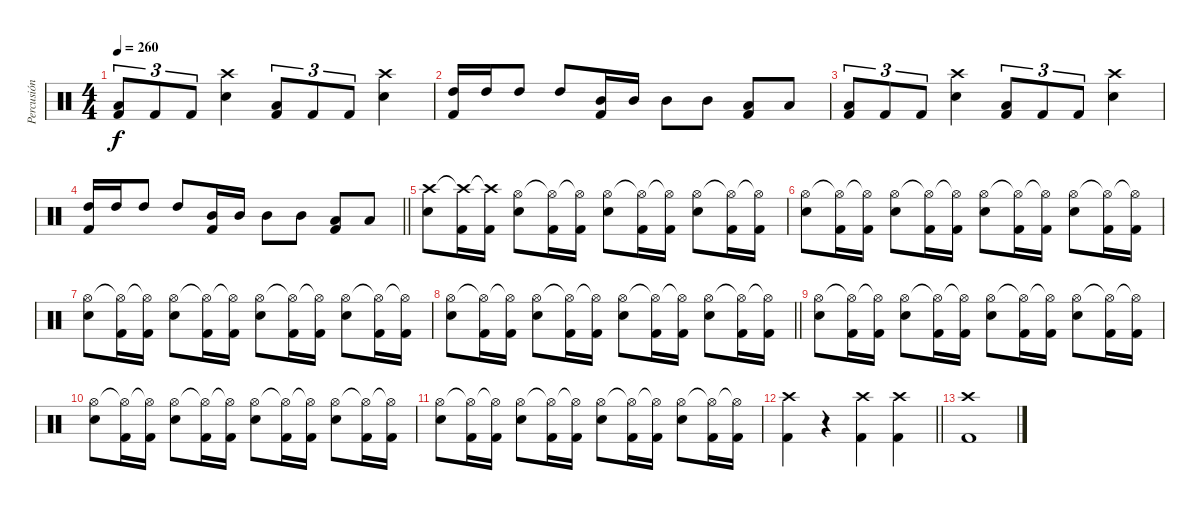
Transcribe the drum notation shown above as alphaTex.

\track ("Percusión" "Percusión") {instrument percussion}
\staff {score}
\articulation defaults
\ts (4 4)
\tempo 260
\clef neutral
\ks c
("Low Tom (hit)" "Kick (hit) 2").8{tu (3 2) dy f} "Kick (hit) 2".8{tu (3 2)} "Kick (hit) 2".8{tu (3 2)} ("Snare (hit) 2" "Crash high (hit)").4 ("Low Tom (hit)" "Kick (hit) 2").8{tu (3 2)} "Kick (hit) 2".8{tu (3 2)} "Kick (hit) 2".8{tu (3 2)} ("Snare (hit) 2" "Crash high (hit)").4 |
("Kick (hit) 2" "High Tom (hit)").16 "High Tom (hit)".16 "High Tom (hit)".8 "High Tom (hit)".8 ("Kick (hit) 2" "Mid Tom (hit)").16 "Mid Tom (hit)".16 "Mid Tom (hit)".8 "Mid Tom (hit)".8 ("Kick (hit) 2" "Low Tom (hit)").8 "Low Tom (hit)".8 |
("Low Tom (hit)" "Kick (hit) 2").8{tu (3 2)} "Kick (hit) 2".8{tu (3 2)} "Kick (hit) 2".8{tu (3 2)} ("Snare (hit) 2" "Crash high (hit)").4 ("Low Tom (hit)" "Kick (hit) 2").8{tu (3 2)} "Kick (hit) 2".8{tu (3 2)} "Kick (hit) 2".8{tu (3 2)} ("Snare (hit) 2" "Crash high (hit)").4 |
\barLineRight lightlight
("Kick (hit) 2" "High Tom (hit)").16 "High Tom (hit)".16 "High Tom (hit)".8 "High Tom (hit)".8 ("Kick (hit) 2" "Mid Tom (hit)").16 "Mid Tom (hit)".16 "Mid Tom (hit)".8 "Mid Tom (hit)".8 ("Kick (hit) 2" "Low Tom (hit)").8 "Low Tom (hit)".8 |
("Snare (hit) 2" "Crash high (hit)").8 ("Kick (hit) 2" "Crash high (hit)"{t}).16 ("Kick (hit) 2" "Crash high (hit)"{t}).16 ("Snare (hit) 2" "Hi-Hat (open)").8 ("Kick (hit) 2" "Hi-Hat (open)"{t}).16 ("Kick (hit) 2" "Hi-Hat (open)"{t}).16 ("Snare (hit) 2" "Hi-Hat (open)").8 ("Kick (hit) 2" "Hi-Hat (open)"{t}).16 ("Kick (hit) 2" "Hi-Hat (open)"{t}).16 ("Snare (hit) 2" "Hi-Hat (open)").8 ("Kick (hit) 2" "Hi-Hat (open)"{t}).16 ("Kick (hit) 2" "Hi-Hat (open)"{t}).16 |
("Snare (hit) 2" "Hi-Hat (open)").8 ("Kick (hit) 2" "Hi-Hat (open)"{t}).16 ("Kick (hit) 2" "Hi-Hat (open)"{t}).16 ("Snare (hit) 2" "Hi-Hat (open)").8 ("Kick (hit) 2" "Hi-Hat (open)"{t}).16 ("Kick (hit) 2" "Hi-Hat (open)"{t}).16 ("Snare (hit) 2" "Hi-Hat (open)").8 ("Kick (hit) 2" "Hi-Hat (open)"{t}).16 ("Kick (hit) 2" "Hi-Hat (open)"{t}).16 ("Snare (hit) 2" "Hi-Hat (open)").8 ("Kick (hit) 2" "Hi-Hat (open)"{t}).16 ("Kick (hit) 2" "Hi-Hat (open)"{t}).16 |
("Snare (hit) 2" "Hi-Hat (open)").8 ("Kick (hit) 2" "Hi-Hat (open)"{t}).16 ("Kick (hit) 2" "Hi-Hat (open)"{t}).16 ("Snare (hit) 2" "Hi-Hat (open)").8 ("Kick (hit) 2" "Hi-Hat (open)"{t}).16 ("Kick (hit) 2" "Hi-Hat (open)"{t}).16 ("Snare (hit) 2" "Hi-Hat (open)").8 ("Kick (hit) 2" "Hi-Hat (open)"{t}).16 ("Kick (hit) 2" "Hi-Hat (open)"{t}).16 ("Snare (hit) 2" "Hi-Hat (open)").8 ("Kick (hit) 2" "Hi-Hat (open)"{t}).16 ("Kick (hit) 2" "Hi-Hat (open)"{t}).16 |
\barLineRight lightlight
("Snare (hit) 2" "Hi-Hat (open)").8 ("Kick (hit) 2" "Hi-Hat (open)"{t}).16 ("Kick (hit) 2" "Hi-Hat (open)"{t}).16 ("Snare (hit) 2" "Hi-Hat (open)").8 ("Kick (hit) 2" "Hi-Hat (open)"{t}).16 ("Kick (hit) 2" "Hi-Hat (open)"{t}).16 ("Snare (hit) 2" "Hi-Hat (open)").8 ("Kick (hit) 2" "Hi-Hat (open)"{t}).16 ("Kick (hit) 2" "Hi-Hat (open)"{t}).16 ("Snare (hit) 2" "Hi-Hat (open)").8 ("Kick (hit) 2" "Hi-Hat (open)"{t}).16 ("Kick (hit) 2" "Hi-Hat (open)"{t}).16 |
("Snare (hit) 2" "Hi-Hat (open)").8 ("Kick (hit) 2" "Hi-Hat (open)"{t}).16 ("Kick (hit) 2" "Hi-Hat (open)"{t}).16 ("Snare (hit) 2" "Hi-Hat (open)").8 ("Kick (hit) 2" "Hi-Hat (open)"{t}).16 ("Kick (hit) 2" "Hi-Hat (open)"{t}).16 ("Snare (hit) 2" "Hi-Hat (open)").8 ("Kick (hit) 2" "Hi-Hat (open)"{t}).16 ("Kick (hit) 2" "Hi-Hat (open)"{t}).16 ("Snare (hit) 2" "Hi-Hat (open)").8 ("Kick (hit) 2" "Hi-Hat (open)"{t}).16 ("Kick (hit) 2" "Hi-Hat (open)"{t}).16 |
("Snare (hit) 2" "Hi-Hat (open)").8 ("Kick (hit) 2" "Hi-Hat (open)"{t}).16 ("Kick (hit) 2" "Hi-Hat (open)"{t}).16 ("Snare (hit) 2" "Hi-Hat (open)").8 ("Kick (hit) 2" "Hi-Hat (open)"{t}).16 ("Kick (hit) 2" "Hi-Hat (open)"{t}).16 ("Snare (hit) 2" "Hi-Hat (open)").8 ("Kick (hit) 2" "Hi-Hat (open)"{t}).16 ("Kick (hit) 2" "Hi-Hat (open)"{t}).16 ("Snare (hit) 2" "Hi-Hat (open)").8 ("Kick (hit) 2" "Hi-Hat (open)"{t}).16 ("Kick (hit) 2" "Hi-Hat (open)"{t}).16 |
("Snare (hit) 2" "Hi-Hat (open)").8 ("Kick (hit) 2" "Hi-Hat (open)"{t}).16 ("Kick (hit) 2" "Hi-Hat (open)"{t}).16 ("Snare (hit) 2" "Hi-Hat (open)").8 ("Kick (hit) 2" "Hi-Hat (open)"{t}).16 ("Kick (hit) 2" "Hi-Hat (open)"{t}).16 ("Snare (hit) 2" "Hi-Hat (open)").8 ("Kick (hit) 2" "Hi-Hat (open)"{t}).16 ("Kick (hit) 2" "Hi-Hat (open)"{t}).16 ("Snare (hit) 2" "Hi-Hat (open)").8 ("Kick (hit) 2" "Hi-Hat (open)"{t}).16 ("Kick (hit) 2" "Hi-Hat (open)"{t}).16 |
\barLineRight lightlight
("Kick (hit) 2" "Crash high (hit)").4 r.4 ("Kick (hit) 2" "Crash high (hit)").4 ("Kick (hit) 2" "Crash high (hit)").4 |
("Kick (hit) 2" "Crash high (hit)").1
